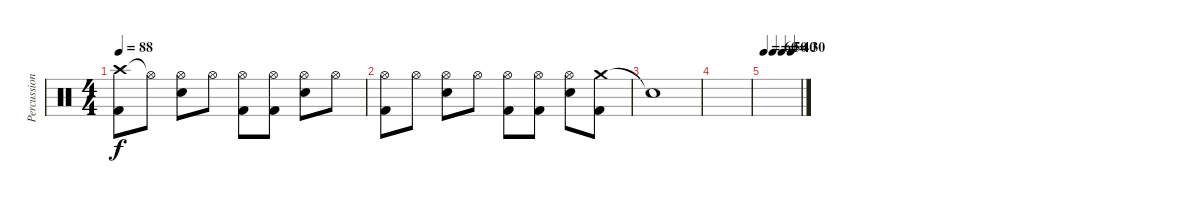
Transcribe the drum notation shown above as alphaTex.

\track ("Percussion" "Percussion") {instrument percussion}
\staff {score}
\articulation defaults
\ts (4 4)
\tempo 88
\clef neutral
\ks c
("Crash high (hit)" "Kick (hit) 2").8{dy f} "Hi-Hat (open)"{t}.8 ("Hi-Hat (open)" "Snare (hit) 2").8 "Hi-Hat (open)".8 ("Hi-Hat (open)" "Kick (hit) 2").8 ("Hi-Hat (open)" "Kick (hit) 2").8 ("Hi-Hat (open)" "Snare (hit) 2").8 "Hi-Hat (open)".8 |
("Hi-Hat (open)" "Kick (hit) 2").8 "Hi-Hat (open)".8 ("Hi-Hat (open)" "Snare (hit) 2").8 "Hi-Hat (open)".8 ("Hi-Hat (open)" "Kick (hit) 2").8 ("Hi-Hat (open)" "Kick (hit) 2").8 ("Hi-Hat (open)" "Snare (hit) 2").8 ("Crash medium (hit)" "Kick (hit) 2").8 |
"Snare (hit)"{t}.1 |
|
\tempo 60
\tempo (50 0.25)
\tempo (40 0.5)
\tempo (30 0.75)
